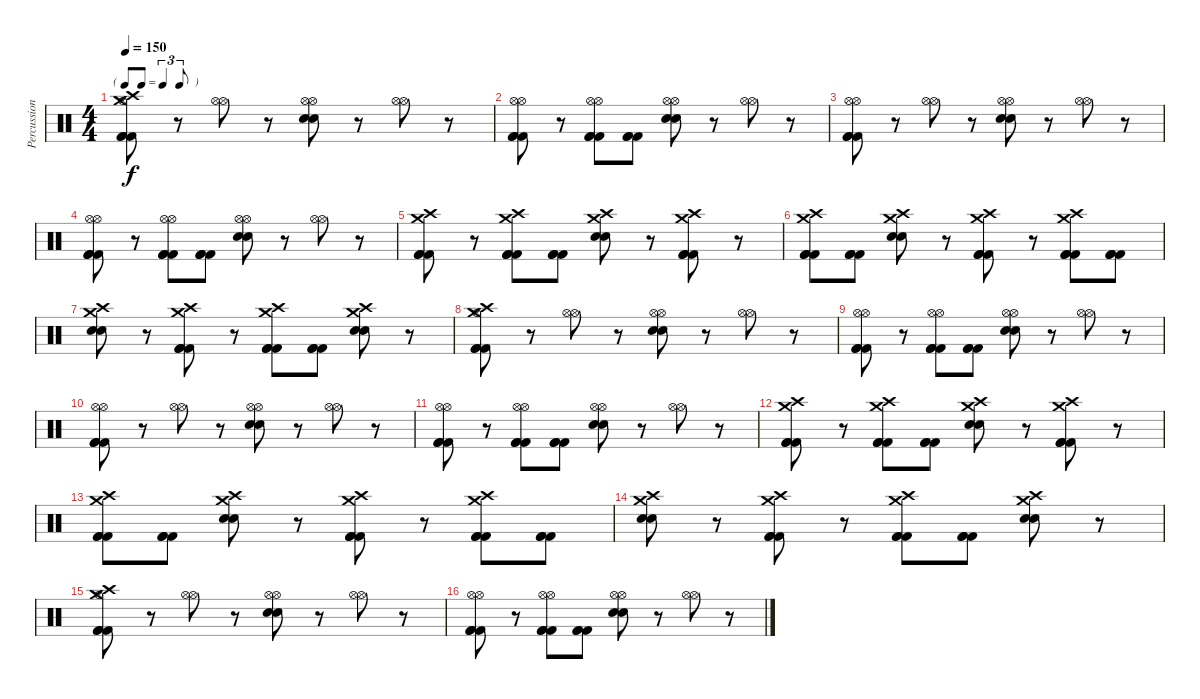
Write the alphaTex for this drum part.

\track ("Percussion" "Percussion") {instrument percussion}
\staff {score}
\articulation defaults
\ts (4 4)
\tf triplet8th
\tempo 150
\clef neutral
\ks c
("Hi-Hat (open)" "Crash high (hit)" "Crash medium (hit)" "Kick (hit) 2" "Kick (hit) 2" "Kick (hit) 2").8{dy f} r.8 ("Hi-Hat (open)" "Hi-Hat (open)").8 r.8 ("Hi-Hat (open)" "Hi-Hat (open)" "Electric Snare (hit)" "Electric Snare (hit)").8 r.8 ("Hi-Hat (open)" "Hi-Hat (open)").8 r.8 |
("Hi-Hat (open)" "Hi-Hat (open)" "Kick (hit) 2" "Kick (hit) 2" "Kick (hit) 2").8 r.8 ("Hi-Hat (open)" "Hi-Hat (open)" "Kick (hit) 2" "Kick (hit) 2" "Kick (hit) 2").8 ("Kick (hit) 2" "Kick (hit) 2" "Kick (hit) 2").8 ("Hi-Hat (open)" "Hi-Hat (open)" "Electric Snare (hit)" "Electric Snare (hit)").8 r.8 ("Hi-Hat (open)" "Hi-Hat (open)").8 r.8 |
("Hi-Hat (open)" "Hi-Hat (open)" "Kick (hit) 2" "Kick (hit) 2" "Kick (hit) 2").8 r.8 ("Hi-Hat (open)" "Hi-Hat (open)").8 r.8 ("Hi-Hat (open)" "Hi-Hat (open)" "Electric Snare (hit)" "Electric Snare (hit)").8 r.8 ("Hi-Hat (open)" "Hi-Hat (open)").8 r.8 |
("Hi-Hat (open)" "Hi-Hat (open)" "Kick (hit) 2" "Kick (hit) 2" "Kick (hit) 2").8 r.8 ("Hi-Hat (open)" "Hi-Hat (open)" "Kick (hit) 2" "Kick (hit) 2" "Kick (hit) 2").8 ("Kick (hit) 2" "Kick (hit) 2" "Kick (hit) 2").8 ("Hi-Hat (open)" "Hi-Hat (open)" "Electric Snare (hit)" "Electric Snare (hit)").8 r.8 ("Hi-Hat (open)" "Hi-Hat (open)").8 r.8 |
("Crash high (hit)" "Crash medium (hit)" "Kick (hit) 2" "Kick (hit) 2" "Kick (hit) 2").8 r.8 ("Crash high (hit)" "Crash medium (hit)" "Kick (hit) 2" "Kick (hit) 2" "Kick (hit) 2").8 ("Kick (hit) 2" "Kick (hit) 2" "Kick (hit) 2").8 ("Crash high (hit)" "Crash medium (hit)" "Electric Snare (hit)" "Electric Snare (hit)").8 r.8 ("Crash high (hit)" "Crash medium (hit)" "Kick (hit) 2" "Kick (hit) 2" "Kick (hit) 2").8 r.8 |
("Crash high (hit)" "Crash medium (hit)" "Kick (hit) 2" "Kick (hit) 2" "Kick (hit) 2").8 ("Kick (hit) 2" "Kick (hit) 2" "Kick (hit) 2").8 ("Crash high (hit)" "Crash medium (hit)" "Electric Snare (hit)" "Electric Snare (hit)").8 r.8 ("Crash high (hit)" "Crash medium (hit)" "Kick (hit) 2" "Kick (hit) 2" "Kick (hit) 2").8 r.8 ("Crash high (hit)" "Crash medium (hit)" "Kick (hit) 2" "Kick (hit) 2" "Kick (hit) 2").8 ("Kick (hit) 2" "Kick (hit) 2" "Kick (hit) 2").8 |
("Crash high (hit)" "Crash medium (hit)" "Electric Snare (hit)" "Electric Snare (hit)").8 r.8 ("Crash high (hit)" "Crash medium (hit)" "Kick (hit) 2" "Kick (hit) 2" "Kick (hit) 2").8 r.8 ("Crash high (hit)" "Crash medium (hit)" "Kick (hit) 2" "Kick (hit) 2" "Kick (hit) 2").8 ("Kick (hit) 2" "Kick (hit) 2" "Kick (hit) 2").8 ("Crash high (hit)" "Crash medium (hit)" "Electric Snare (hit)" "Electric Snare (hit)").8 r.8 |
("Hi-Hat (open)" "Crash high (hit)" "Crash medium (hit)" "Kick (hit) 2" "Kick (hit) 2" "Kick (hit) 2").8 r.8 ("Hi-Hat (open)" "Hi-Hat (open)").8 r.8 ("Hi-Hat (open)" "Hi-Hat (open)" "Electric Snare (hit)" "Electric Snare (hit)").8 r.8 ("Hi-Hat (open)" "Hi-Hat (open)").8 r.8 |
("Hi-Hat (open)" "Hi-Hat (open)" "Kick (hit) 2" "Kick (hit) 2" "Kick (hit) 2").8 r.8 ("Hi-Hat (open)" "Hi-Hat (open)" "Kick (hit) 2" "Kick (hit) 2" "Kick (hit) 2").8 ("Kick (hit) 2" "Kick (hit) 2" "Kick (hit) 2").8 ("Hi-Hat (open)" "Hi-Hat (open)" "Electric Snare (hit)" "Electric Snare (hit)").8 r.8 ("Hi-Hat (open)" "Hi-Hat (open)").8 r.8 |
("Hi-Hat (open)" "Hi-Hat (open)" "Kick (hit) 2" "Kick (hit) 2" "Kick (hit) 2").8 r.8 ("Hi-Hat (open)" "Hi-Hat (open)").8 r.8 ("Hi-Hat (open)" "Hi-Hat (open)" "Electric Snare (hit)" "Electric Snare (hit)").8 r.8 ("Hi-Hat (open)" "Hi-Hat (open)").8 r.8 |
("Hi-Hat (open)" "Hi-Hat (open)" "Kick (hit) 2" "Kick (hit) 2" "Kick (hit) 2").8 r.8 ("Hi-Hat (open)" "Hi-Hat (open)" "Kick (hit) 2" "Kick (hit) 2" "Kick (hit) 2").8 ("Kick (hit) 2" "Kick (hit) 2" "Kick (hit) 2").8 ("Hi-Hat (open)" "Hi-Hat (open)" "Electric Snare (hit)" "Electric Snare (hit)").8 r.8 ("Hi-Hat (open)" "Hi-Hat (open)").8 r.8 |
("Crash high (hit)" "Crash medium (hit)" "Kick (hit) 2" "Kick (hit) 2" "Kick (hit) 2").8 r.8 ("Crash high (hit)" "Crash medium (hit)" "Kick (hit) 2" "Kick (hit) 2" "Kick (hit) 2").8 ("Kick (hit) 2" "Kick (hit) 2" "Kick (hit) 2").8 ("Crash high (hit)" "Crash medium (hit)" "Electric Snare (hit)" "Electric Snare (hit)").8 r.8 ("Crash high (hit)" "Crash medium (hit)" "Kick (hit) 2" "Kick (hit) 2" "Kick (hit) 2").8 r.8 |
("Crash high (hit)" "Crash medium (hit)" "Kick (hit) 2" "Kick (hit) 2" "Kick (hit) 2").8 ("Kick (hit) 2" "Kick (hit) 2" "Kick (hit) 2").8 ("Crash high (hit)" "Crash medium (hit)" "Electric Snare (hit)" "Electric Snare (hit)").8 r.8 ("Crash high (hit)" "Crash medium (hit)" "Kick (hit) 2" "Kick (hit) 2" "Kick (hit) 2").8 r.8 ("Crash high (hit)" "Crash medium (hit)" "Kick (hit) 2" "Kick (hit) 2" "Kick (hit) 2").8 ("Kick (hit) 2" "Kick (hit) 2" "Kick (hit) 2").8 |
("Crash high (hit)" "Crash medium (hit)" "Electric Snare (hit)" "Electric Snare (hit)").8 r.8 ("Crash high (hit)" "Crash medium (hit)" "Kick (hit) 2" "Kick (hit) 2" "Kick (hit) 2").8 r.8 ("Crash high (hit)" "Crash medium (hit)" "Kick (hit) 2" "Kick (hit) 2" "Kick (hit) 2").8 ("Kick (hit) 2" "Kick (hit) 2" "Kick (hit) 2").8 ("Crash high (hit)" "Crash medium (hit)" "Electric Snare (hit)" "Electric Snare (hit)").8 r.8 |
("Hi-Hat (open)" "Crash high (hit)" "Crash medium (hit)" "Kick (hit) 2" "Kick (hit) 2" "Kick (hit) 2").8 r.8 ("Hi-Hat (open)" "Hi-Hat (open)").8 r.8 ("Hi-Hat (open)" "Hi-Hat (open)" "Electric Snare (hit)" "Electric Snare (hit)").8 r.8 ("Hi-Hat (open)" "Hi-Hat (open)").8 r.8 |
("Hi-Hat (open)" "Hi-Hat (open)" "Kick (hit) 2" "Kick (hit) 2" "Kick (hit) 2").8 r.8 ("Hi-Hat (open)" "Hi-Hat (open)" "Kick (hit) 2" "Kick (hit) 2" "Kick (hit) 2").8 ("Kick (hit) 2" "Kick (hit) 2" "Kick (hit) 2").8 ("Hi-Hat (open)" "Hi-Hat (open)" "Electric Snare (hit)" "Electric Snare (hit)").8 r.8 ("Hi-Hat (open)" "Hi-Hat (open)").8 r.8
